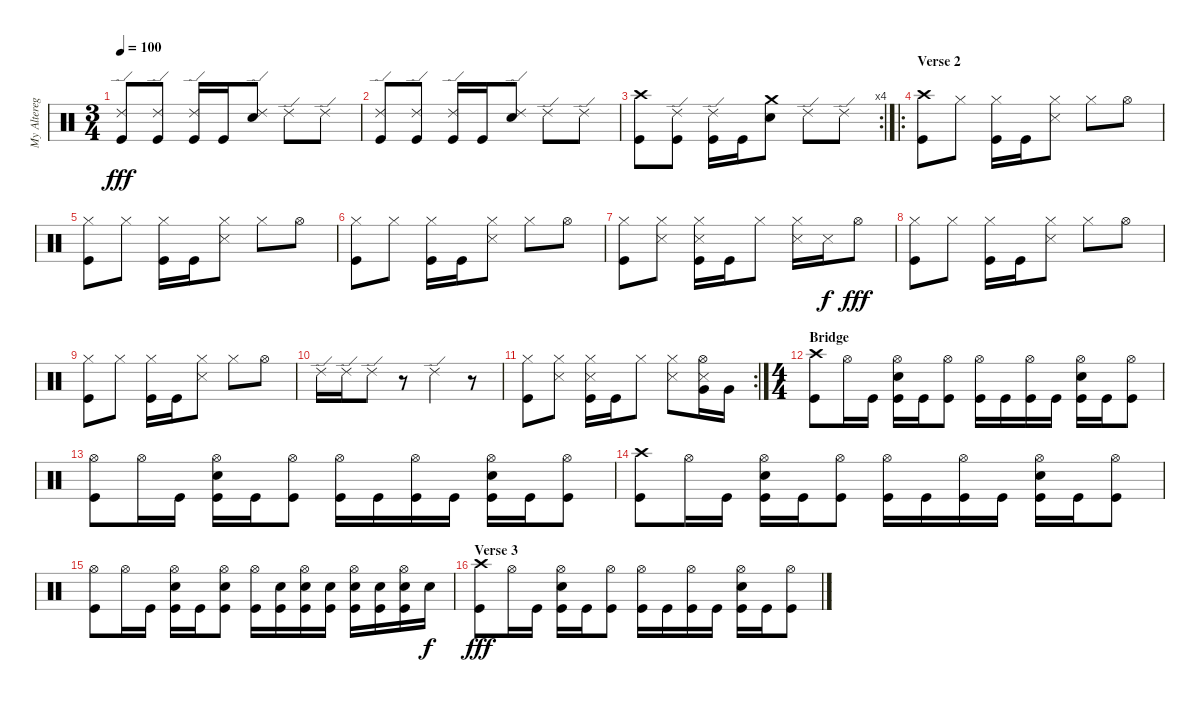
\track ("My Alterego Playing Drums" "My Altereg") {instrument percussion}
\staff {score}
\articulation defaults
\ts (3 4)
\tempo 100
\clef neutral
\ks c
("Ride (edge) 2" "Kick (hit)").8{dy fff} ("Ride (edge) 2" "Kick (hit)").8 ("Ride (edge) 2" "Kick (hit)").16 "Kick (hit)".16 ("Ride (edge) 2" "Snare (hit) 2").8 "Ride (edge) 2".8 "Ride (edge) 2".8 |
("Ride (edge) 2" "Kick (hit)").8 ("Ride (edge) 2" "Kick (hit)").8 ("Ride (edge) 2" "Kick (hit)").16 "Kick (hit)".16 ("Ride (edge) 2" "Snare (hit) 2").8 "Ride (edge) 2".8 "Ride (edge) 2".8 |
\rc 4
("Crash high (hit)" "Kick (hit)").8 ("Ride (edge) 2" "Kick (hit)").8 ("Ride (edge) 2" "Kick (hit)").16 "Kick (hit)".16 ("Crash medium (hit)" "Snare (hit) 2").8 "Ride (edge) 2".8 "Ride (edge) 2".8 |
\ro
\section ("" "Verse 2")
("Crash high (hit)" "Kick (hit)").8 "Hi-Hat (closed)".8 ("Hi-Hat (closed)" "Kick (hit)").16 "Kick (hit)".16 ("Hi-Hat (closed)" "Snare (side stick) 3").8 "Hi-Hat (closed)".8 "Hi-Hat (open)".8 |
("Hi-Hat (closed)" "Kick (hit)").8 "Hi-Hat (closed)".8 ("Hi-Hat (closed)" "Kick (hit)").16 "Kick (hit)".16 ("Hi-Hat (closed)" "Snare (side stick) 3").8 "Hi-Hat (closed)".8 "Hi-Hat (open)".8 |
("Hi-Hat (closed)" "Kick (hit)").8 "Hi-Hat (closed)".8 ("Hi-Hat (closed)" "Kick (hit)").16 "Kick (hit)".16 ("Hi-Hat (closed)" "Snare (side stick) 3").8 "Hi-Hat (closed)".8 "Hi-Hat (open)".8 |
("Hi-Hat (closed)" "Kick (hit)").8 ("Hi-Hat (closed)" "Snare (side stick) 3").8 ("Hi-Hat (closed)" "Snare (side stick) 3" "Kick (hit)").16 "Kick (hit)".16 "Hi-Hat (closed)".8 ("Hi-Hat (closed)" "Snare (side stick) 3").16 "Snare (side stick) 3".16{dy f} "Hi-Hat (open)".8{dy fff} |
("Hi-Hat (closed)" "Kick (hit)").8 "Hi-Hat (closed)".8 ("Hi-Hat (closed)" "Kick (hit)").16 "Kick (hit)".16 ("Hi-Hat (closed)" "Snare (side stick) 3").8 "Hi-Hat (closed)".8 "Hi-Hat (open)".8 |
("Hi-Hat (closed)" "Kick (hit)").8 "Hi-Hat (closed)".8 ("Hi-Hat (closed)" "Kick (hit)").16 "Kick (hit)".16 ("Hi-Hat (closed)" "Snare (side stick) 3").8 "Hi-Hat (closed)".8 "Hi-Hat (open)".8 |
"Ride (edge) 2".16 "Ride (edge) 2".16 "Ride (edge) 2".8 r.8 "Ride (edge) 2".4 r.8 |
\rc 2
("Hi-Hat (closed)" "Kick (hit)").8 ("Hi-Hat (closed)" "Snare (side stick) 3").8 ("Hi-Hat (closed)" "Snare (side stick) 3" "Kick (hit)").16 "Kick (hit)".16 "Hi-Hat (closed)".8 ("Hi-Hat (closed)" "Snare (side stick) 3").8 ("Hi-Hat (open)" "Snare (side stick) 3" "Very Low Tom (hit)").16 "Very Low Tom (hit)".16 |
\ts (4 4)
\section ("" "Bridge")
("Crash high (hit)" "Kick (hit)").8 "Hi-Hat (open)".16 "Kick (hit)".16 ("Hi-Hat (open)" "Snare (hit) 2" "Kick (hit)").16 "Kick (hit)".16 ("Hi-Hat (open)" "Kick (hit)").8 ("Hi-Hat (open)" "Kick (hit)").16 "Kick (hit)".16 ("Hi-Hat (open)" "Kick (hit)").16 "Kick (hit)".16 ("Hi-Hat (open)" "Snare (hit) 2" "Kick (hit)").16 "Kick (hit)".16 ("Hi-Hat (open)" "Kick (hit)").8 |
("Hi-Hat (open)" "Kick (hit)").8 "Hi-Hat (open)".16 "Kick (hit)".16 ("Hi-Hat (open)" "Snare (hit) 2" "Kick (hit)").16 "Kick (hit)".16 ("Hi-Hat (open)" "Kick (hit)").8 ("Hi-Hat (open)" "Kick (hit)").16 "Kick (hit)".16 ("Hi-Hat (open)" "Kick (hit)").16 "Kick (hit)".16 ("Hi-Hat (open)" "Snare (hit) 2" "Kick (hit)").16 "Kick (hit)".16 ("Hi-Hat (open)" "Kick (hit)").8 |
("Crash high (hit)" "Kick (hit)").8 "Hi-Hat (open)".16 "Kick (hit)".16 ("Hi-Hat (open)" "Snare (hit) 2" "Kick (hit)").16 "Kick (hit)".16 ("Hi-Hat (open)" "Kick (hit)").8 ("Hi-Hat (open)" "Kick (hit)").16 "Kick (hit)".16 ("Hi-Hat (open)" "Kick (hit)").16 "Kick (hit)".16 ("Hi-Hat (open)" "Snare (hit) 2" "Kick (hit)").16 "Kick (hit)".16 ("Hi-Hat (open)" "Kick (hit)").8 |
("Hi-Hat (open)" "Kick (hit)").8 "Hi-Hat (open)".16 "Kick (hit)".16 ("Hi-Hat (open)" "Snare (hit) 2" "Kick (hit)").16 "Kick (hit)".16 ("Hi-Hat (open)" "Snare (hit) 2" "Kick (hit)").8 ("Hi-Hat (open)" "Kick (hit)").16 ("Snare (hit) 2" "Kick (hit)").16 ("Hi-Hat (open)" "Snare (hit) 2" "Kick (hit)").16 ("Snare (hit) 2" "Kick (hit)").16 ("Hi-Hat (open)" "Snare (hit) 2" "Kick (hit)").16 ("Snare (hit) 2" "Kick (hit)").16 ("Hi-Hat (open)" "Snare (hit) 2" "Kick (hit)").16 "Snare (hit) 2".16{dy f} |
\section ("" "Verse 3")
("Crash high (hit)" "Kick (hit)").8{dy fff} "Hi-Hat (open)".16 "Kick (hit)".16 ("Hi-Hat (open)" "Snare (hit) 2" "Kick (hit)").16 "Kick (hit)".16 ("Hi-Hat (open)" "Kick (hit)").8 ("Hi-Hat (open)" "Kick (hit)").16 "Kick (hit)".16 ("Hi-Hat (open)" "Kick (hit)").16 "Kick (hit)".16 ("Hi-Hat (open)" "Snare (hit) 2" "Kick (hit)").16 "Kick (hit)".16 ("Hi-Hat (open)" "Kick (hit)").8
